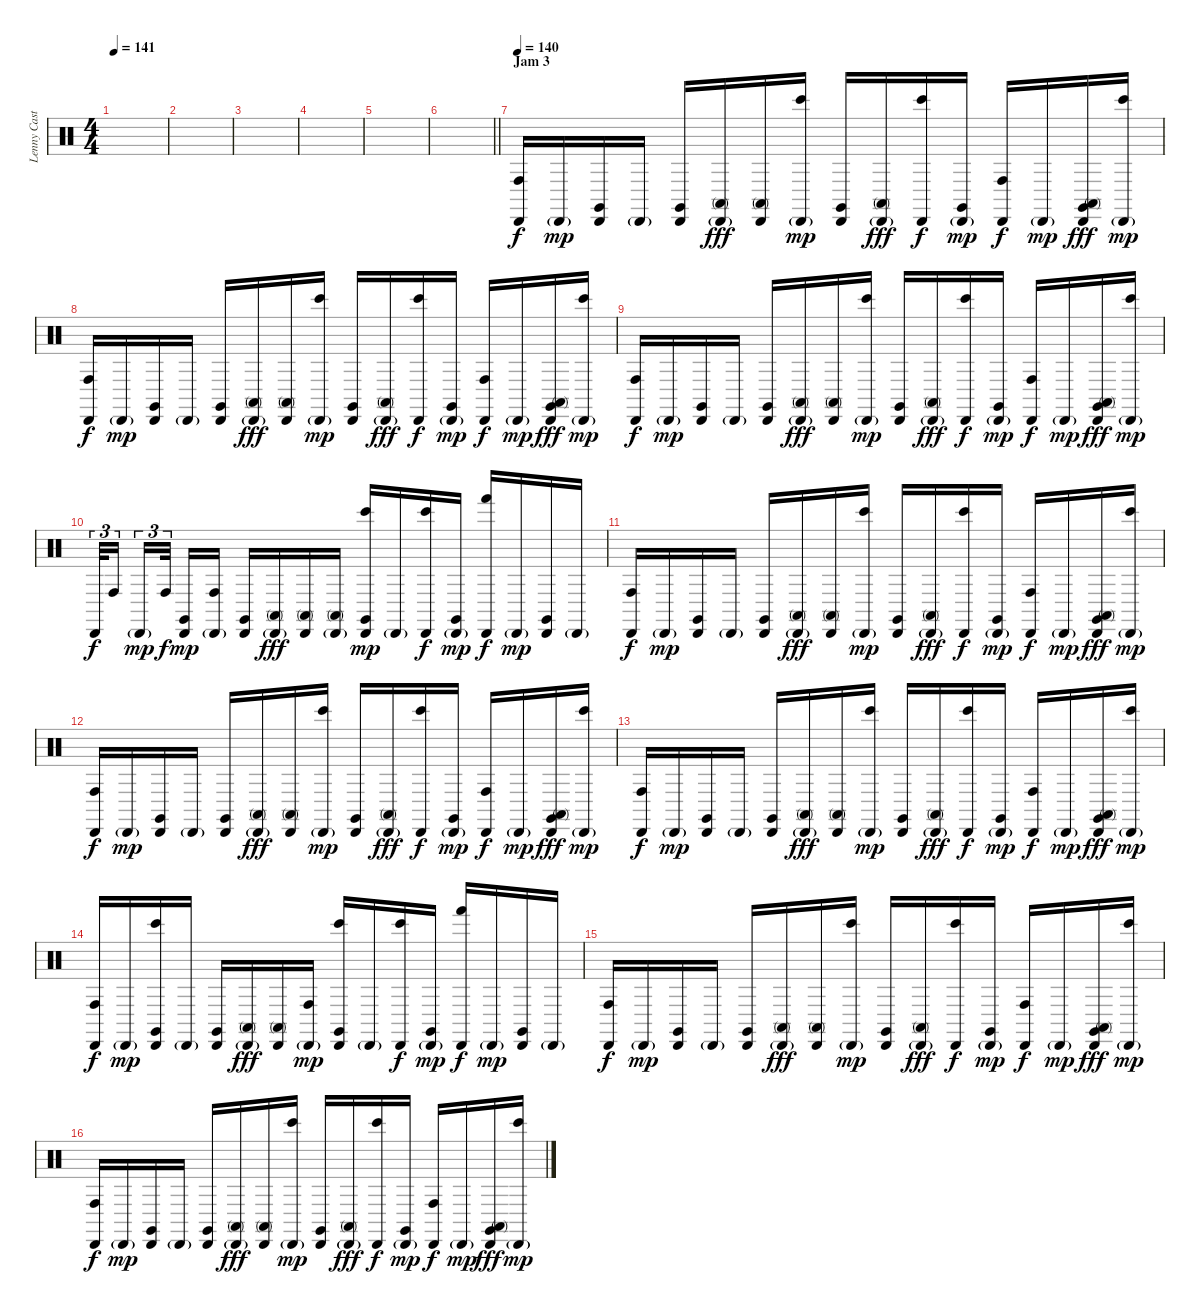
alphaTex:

\track ("Lenny Castro - Percussion" "Lenny Cast") {instrument percussion}
\staff {score}
\articulation defaults
\ts (4 4)
\tempo 141
\clef neutral
\ks c
|
|
|
|
|
\barLineRight lightlight
|
\section ("" "Jam 3")
\tempo 140
("Cabasa (hit)" "Conga high (hit)").16{dy f} "Cabasa (hit)"{g}.16{dy mp} ("Claves (hit)" "Cabasa (hit)").16 "Cabasa (hit)"{g}.16 ("Claves (hit)" "Cabasa (hit)").16 ("Cabasa (hit)"{g} "Conga high (mute)").16{dy fff} ("Cabasa (hit)" "Conga high (mute)").16 ("Cabasa (hit)"{g} "Bongo High (hit)").16{dy mp} ("Claves (hit)" "Cabasa (hit)").16 ("Cabasa (hit)"{g} "Conga high (mute)").16{dy fff} ("Cabasa (hit)" "Bongo High (hit)").16{dy f} ("Claves (hit)" "Cabasa (hit)"{g}).16{dy mp} ("Cabasa (hit)" "Conga high (hit)").16{dy f} "Cabasa (hit)"{g}.16{dy mp} ("Claves (hit)" "Cabasa (hit)" "Conga high (mute)").16{dy fff} ("Cabasa (hit)"{g} "Bongo High (hit)").16{dy mp} |
("Cabasa (hit)" "Conga high (hit)").16{dy f} "Cabasa (hit)"{g}.16{dy mp} ("Claves (hit)" "Cabasa (hit)").16 "Cabasa (hit)"{g}.16 ("Claves (hit)" "Cabasa (hit)").16 ("Cabasa (hit)"{g} "Conga high (mute)").16{dy fff} ("Cabasa (hit)" "Conga high (mute)").16 ("Cabasa (hit)"{g} "Bongo High (hit)").16{dy mp} ("Claves (hit)" "Cabasa (hit)").16 ("Cabasa (hit)"{g} "Conga high (mute)").16{dy fff} ("Cabasa (hit)" "Bongo High (hit)").16{dy f} ("Claves (hit)" "Cabasa (hit)"{g}).16{dy mp} ("Cabasa (hit)" "Conga high (hit)").16{dy f} "Cabasa (hit)"{g}.16{dy mp} ("Claves (hit)" "Cabasa (hit)" "Conga high (mute)").16{dy fff} ("Cabasa (hit)"{g} "Bongo High (hit)").16{dy mp} |
("Cabasa (hit)" "Conga high (hit)").16{dy f} "Cabasa (hit)"{g}.16{dy mp} ("Claves (hit)" "Cabasa (hit)").16 "Cabasa (hit)"{g}.16 ("Claves (hit)" "Cabasa (hit)").16 ("Cabasa (hit)"{g} "Conga high (mute)").16{dy fff} ("Cabasa (hit)" "Conga high (mute)").16 ("Cabasa (hit)"{g} "Bongo High (hit)").16{dy mp} ("Claves (hit)" "Cabasa (hit)").16 ("Cabasa (hit)"{g} "Conga high (mute)").16{dy fff} ("Cabasa (hit)" "Bongo High (hit)").16{dy f} ("Claves (hit)" "Cabasa (hit)"{g}).16{dy mp} ("Cabasa (hit)" "Conga high (hit)").16{dy f} "Cabasa (hit)"{g}.16{dy mp} ("Claves (hit)" "Cabasa (hit)" "Conga high (mute)").16{dy fff} ("Cabasa (hit)"{g} "Bongo High (hit)").16{dy mp} |
"Cabasa (hit)".32{tu (3 2) dy f} "Conga high (hit)".16{tu (3 2) beam splitsecondary} "Cabasa (hit)"{g}.16{tu (3 2) dy mp} "Conga high (hit)".32{tu (3 2) dy f beam splitsecondary} ("Claves (hit)" "Cabasa (hit)").16{dy mp} ("Cabasa (hit)"{g} "Conga high (hit)").16 ("Claves (hit)" "Cabasa (hit)").16 ("Cabasa (hit)"{g} "Conga high (mute)").16{dy fff} ("Cabasa (hit)" "Conga high (mute)").16 ("Cabasa (hit)"{g} "Conga high (mute)").16 ("Claves (hit)" "Cabasa (hit)" "Bongo High (hit)").16{dy mp} "Cabasa (hit)"{g}.16 ("Cabasa (hit)" "Bongo High (hit)").16{dy f} ("Claves (hit)" "Cabasa (hit)"{g}).16{dy mp} ("Cabasa (hit)" "Hand (hit)").16{dy f} "Cabasa (hit)"{g}.16{dy mp} ("Claves (hit)" "Cabasa (hit)").16 "Cabasa (hit)"{g}.16 |
("Cabasa (hit)" "Conga high (hit)").16{dy f} "Cabasa (hit)"{g}.16{dy mp} ("Claves (hit)" "Cabasa (hit)").16 "Cabasa (hit)"{g}.16 ("Claves (hit)" "Cabasa (hit)").16 ("Cabasa (hit)"{g} "Conga high (mute)").16{dy fff} ("Cabasa (hit)" "Conga high (mute)").16 ("Cabasa (hit)"{g} "Bongo High (hit)").16{dy mp} ("Claves (hit)" "Cabasa (hit)").16 ("Cabasa (hit)"{g} "Conga high (mute)").16{dy fff} ("Cabasa (hit)" "Bongo High (hit)").16{dy f} ("Claves (hit)" "Cabasa (hit)"{g}).16{dy mp} ("Cabasa (hit)" "Conga high (hit)").16{dy f} "Cabasa (hit)"{g}.16{dy mp} ("Claves (hit)" "Cabasa (hit)" "Conga high (mute)").16{dy fff} ("Cabasa (hit)"{g} "Bongo High (hit)").16{dy mp} |
("Cabasa (hit)" "Conga high (hit)").16{dy f} "Cabasa (hit)"{g}.16{dy mp} ("Claves (hit)" "Cabasa (hit)").16 "Cabasa (hit)"{g}.16 ("Claves (hit)" "Cabasa (hit)").16 ("Cabasa (hit)"{g} "Conga high (mute)").16{dy fff} ("Cabasa (hit)" "Conga high (mute)").16 ("Cabasa (hit)"{g} "Bongo High (hit)").16{dy mp} ("Claves (hit)" "Cabasa (hit)").16 ("Cabasa (hit)"{g} "Conga high (mute)").16{dy fff} ("Cabasa (hit)" "Bongo High (hit)").16{dy f} ("Claves (hit)" "Cabasa (hit)"{g}).16{dy mp} ("Cabasa (hit)" "Conga high (hit)").16{dy f} "Cabasa (hit)"{g}.16{dy mp} ("Claves (hit)" "Cabasa (hit)" "Conga high (mute)").16{dy fff} ("Cabasa (hit)"{g} "Bongo High (hit)").16{dy mp} |
("Cabasa (hit)" "Conga high (hit)").16{dy f} "Cabasa (hit)"{g}.16{dy mp} ("Claves (hit)" "Cabasa (hit)").16 "Cabasa (hit)"{g}.16 ("Claves (hit)" "Cabasa (hit)").16 ("Cabasa (hit)"{g} "Conga high (mute)").16{dy fff} ("Cabasa (hit)" "Conga high (mute)").16 ("Cabasa (hit)"{g} "Bongo High (hit)").16{dy mp} ("Claves (hit)" "Cabasa (hit)").16 ("Cabasa (hit)"{g} "Conga high (mute)").16{dy fff} ("Cabasa (hit)" "Bongo High (hit)").16{dy f} ("Claves (hit)" "Cabasa (hit)"{g}).16{dy mp} ("Cabasa (hit)" "Conga high (hit)").16{dy f} "Cabasa (hit)"{g}.16{dy mp} ("Claves (hit)" "Cabasa (hit)" "Conga high (mute)").16{dy fff} ("Cabasa (hit)"{g} "Bongo High (hit)").16{dy mp} |
("Cabasa (hit)" "Conga high (hit)").16{dy f} "Cabasa (hit)"{g}.16{dy mp} ("Claves (hit)" "Cabasa (hit)" "Bongo High (hit)").16 "Cabasa (hit)"{g}.16 ("Claves (hit)" "Cabasa (hit)").16 ("Cabasa (hit)"{g} "Conga high (mute)").16{dy fff} ("Cabasa (hit)" "Conga high (mute)").16 ("Cabasa (hit)"{g} "Conga high (hit)").16{dy mp} ("Claves (hit)" "Cabasa (hit)" "Bongo High (hit)").16 "Cabasa (hit)"{g}.16 ("Cabasa (hit)" "Bongo High (hit)").16{dy f} ("Claves (hit)" "Cabasa (hit)"{g}).16{dy mp} ("Cabasa (hit)" "Hand (hit)").16{dy f} "Cabasa (hit)"{g}.16{dy mp} ("Claves (hit)" "Cabasa (hit)").16 "Cabasa (hit)"{g}.16 |
("Cabasa (hit)" "Conga high (hit)").16{dy f} "Cabasa (hit)"{g}.16{dy mp} ("Claves (hit)" "Cabasa (hit)").16 "Cabasa (hit)"{g}.16 ("Claves (hit)" "Cabasa (hit)").16 ("Cabasa (hit)"{g} "Conga high (mute)").16{dy fff} ("Cabasa (hit)" "Conga high (mute)").16 ("Cabasa (hit)"{g} "Bongo High (hit)").16{dy mp} ("Claves (hit)" "Cabasa (hit)").16 ("Cabasa (hit)"{g} "Conga high (mute)").16{dy fff} ("Cabasa (hit)" "Bongo High (hit)").16{dy f} ("Claves (hit)" "Cabasa (hit)"{g}).16{dy mp} ("Cabasa (hit)" "Conga high (hit)").16{dy f} "Cabasa (hit)"{g}.16{dy mp} ("Claves (hit)" "Cabasa (hit)" "Conga high (mute)").16{dy fff} ("Cabasa (hit)"{g} "Bongo High (hit)").16{dy mp} |
("Cabasa (hit)" "Conga high (hit)").16{dy f} "Cabasa (hit)"{g}.16{dy mp} ("Claves (hit)" "Cabasa (hit)").16 "Cabasa (hit)"{g}.16 ("Claves (hit)" "Cabasa (hit)").16 ("Cabasa (hit)"{g} "Conga high (mute)").16{dy fff} ("Cabasa (hit)" "Conga high (mute)").16 ("Cabasa (hit)"{g} "Bongo High (hit)").16{dy mp} ("Claves (hit)" "Cabasa (hit)").16 ("Cabasa (hit)"{g} "Conga high (mute)").16{dy fff} ("Cabasa (hit)" "Bongo High (hit)").16{dy f} ("Claves (hit)" "Cabasa (hit)"{g}).16{dy mp} ("Cabasa (hit)" "Conga high (hit)").16{dy f} "Cabasa (hit)"{g}.16{dy mp} ("Claves (hit)" "Cabasa (hit)" "Conga high (mute)").16{dy fff} ("Cabasa (hit)"{g} "Bongo High (hit)").16{dy mp}
